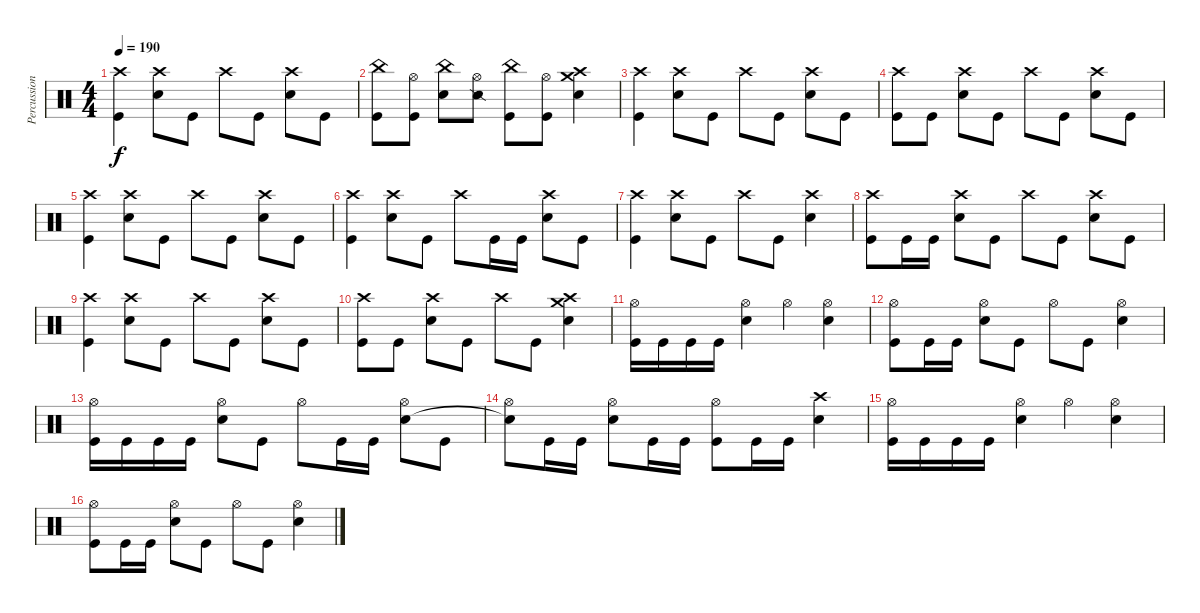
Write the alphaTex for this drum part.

\track ("Percussions" "Percussion") {instrument percussion}
\staff {score}
\articulation defaults
\ts (4 4)
\tempo 190
\clef neutral
\ks c
("Crash high (hit)" "Kick (hit)").4{dy f} ("Crash high (hit)" "Snare (hit) 2").8 "Kick (hit)".8 "Crash high (hit)".8 "Kick (hit)".8 ("Crash high (hit)" "Snare (hit) 2").8 "Kick (hit)".8 |
("China (hit)" "Kick (hit)").8 ("Hi-Hat (open)" "Kick (hit)").8 ("China (hit)" "Snare (hit) 2").8 ("Hi-Hat (open)" "Snare (side stick) 2").8 ("China (hit)" "Kick (hit)").8 ("Hi-Hat (open)" "Kick (hit)").8 ("Crash medium (hit)" "Crash high (hit)" "Snare (hit) 2").4 |
("Crash high (hit)" "Kick (hit)").4 ("Crash high (hit)" "Snare (hit) 2").8 "Kick (hit)".8 "Crash high (hit)".8 "Kick (hit)".8 ("Crash high (hit)" "Snare (hit) 2").8 "Kick (hit)".8 |
("Crash high (hit)" "Kick (hit)").8 "Kick (hit)".8 ("Crash high (hit)" "Snare (hit) 2").8 "Kick (hit)".8 "Crash high (hit)".8 "Kick (hit)".8 ("Crash high (hit)" "Snare (hit) 2").8 "Kick (hit)".8 |
("Crash high (hit)" "Kick (hit)").4 ("Crash high (hit)" "Snare (hit) 2").8 "Kick (hit)".8 "Crash high (hit)".8 "Kick (hit)".8 ("Crash high (hit)" "Snare (hit) 2").8 "Kick (hit)".8 |
("Crash high (hit)" "Kick (hit)").4 ("Crash high (hit)" "Snare (hit) 2").8 "Kick (hit)".8 "Crash high (hit)".8 "Kick (hit)".16 "Kick (hit)".16 ("Crash high (hit)" "Snare (hit) 2").8 "Kick (hit)".8 |
("Crash high (hit)" "Kick (hit)").4 ("Crash high (hit)" "Snare (hit) 2").8 "Kick (hit)".8 "Crash high (hit)".8 "Kick (hit)".8 ("Crash high (hit)" "Snare (hit) 2").4 |
("Crash high (hit)" "Kick (hit)").8 "Kick (hit)".16 "Kick (hit)".16 ("Crash high (hit)" "Snare (hit) 2").8 "Kick (hit)".8 "Crash high (hit)".8 "Kick (hit)".8 ("Crash high (hit)" "Snare (hit) 2").8 "Kick (hit)".8 |
("Crash high (hit)" "Kick (hit)").4 ("Crash high (hit)" "Snare (hit) 2").8 "Kick (hit)".8 "Crash high (hit)".8 "Kick (hit)".8 ("Crash high (hit)" "Snare (hit) 2").8 "Kick (hit)".8 |
("Crash high (hit)" "Kick (hit)").8 "Kick (hit)".8 ("Crash high (hit)" "Snare (hit) 2").8 "Kick (hit)".8 "Crash high (hit)".8 "Kick (hit)".8 ("Crash medium (hit)" "Crash high (hit)" "Snare (hit) 2").4 |
("Hi-Hat (open)" "Kick (hit)").16 "Kick (hit)".16 "Kick (hit)".16 "Kick (hit)".16 ("Hi-Hat (open)" "Snare (hit) 2").4 "Hi-Hat (open)".4 ("Hi-Hat (open)" "Snare (hit) 2").4 |
("Hi-Hat (open)" "Kick (hit)").8 "Kick (hit)".16 "Kick (hit)".16 ("Hi-Hat (open)" "Snare (hit) 2").8 "Kick (hit)".8 "Hi-Hat (open)".8 "Kick (hit)".8 ("Hi-Hat (open)" "Snare (hit) 2").4 |
("Hi-Hat (open)" "Kick (hit)").16 "Kick (hit)".16 "Kick (hit)".16 "Kick (hit)".16 ("Hi-Hat (open)" "Snare (hit) 2").8 "Kick (hit)".8 "Hi-Hat (open)".8 "Kick (hit)".16 "Kick (hit)".16 ("Hi-Hat (open)" "Snare (hit) 2").8 "Kick (hit)".8 |
("Hi-Hat (open)" "Snare (hit)"{t}).8 "Kick (hit)".16 "Kick (hit)".16 ("Hi-Hat (open)" "Snare (hit) 2").8 "Kick (hit)".16 "Kick (hit)".16 ("Hi-Hat (open)" "Kick (hit)").8 "Kick (hit)".16 "Kick (hit)".16 ("Crash high (hit)" "Snare (hit) 2").4 |
("Hi-Hat (open)" "Kick (hit)").16 "Kick (hit)".16 "Kick (hit)".16 "Kick (hit)".16 ("Hi-Hat (open)" "Snare (hit) 2").4 "Hi-Hat (open)".4 ("Hi-Hat (open)" "Snare (hit) 2").4 |
("Hi-Hat (open)" "Kick (hit)").8 "Kick (hit)".16 "Kick (hit)".16 ("Hi-Hat (open)" "Snare (hit) 2").8 "Kick (hit)".8 "Hi-Hat (open)".8 "Kick (hit)".8 ("Hi-Hat (open)" "Snare (hit) 2").4
